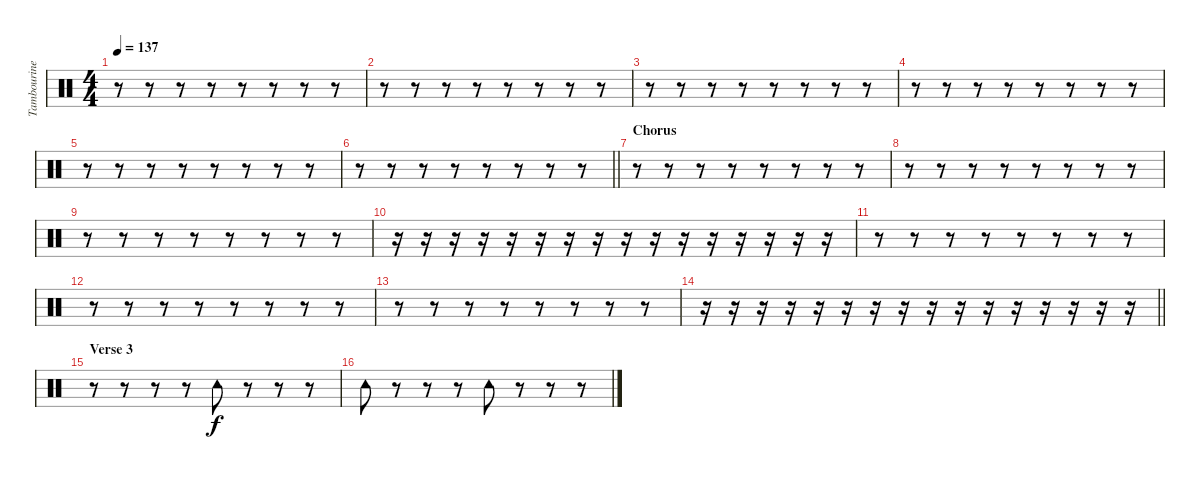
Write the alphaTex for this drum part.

\track ("Tambourine" "Tambourine") {instrument percussion}
\staff {score}
\articulation defaults
\ts (4 4)
\tempo 137
\clef neutral
\ks c
r.8{dy f} r.8 r.8 r.8 r.8 r.8 r.8 r.8 |
r.8 r.8 r.8 r.8 r.8 r.8 r.8 r.8 |
r.8 r.8 r.8 r.8 r.8 r.8 r.8 r.8 |
r.8 r.8 r.8 r.8 r.8 r.8 r.8 r.8 |
r.8 r.8 r.8 r.8 r.8 r.8 r.8 r.8 |
\barLineRight lightlight
r.8 r.8 r.8 r.8 r.8 r.8 r.8 r.8 |
\section ("" "Chorus")
r.8 r.8 r.8 r.8 r.8 r.8 r.8 r.8 |
r.8 r.8 r.8 r.8 r.8 r.8 r.8 r.8 |
r.8 r.8 r.8 r.8 r.8 r.8 r.8 r.8 |
r.16 r.16 r.16 r.16 r.16 r.16 r.16 r.16 r.16 r.16 r.16 r.16 r.16 r.16 r.16 r.16 |
r.8 r.8 r.8 r.8 r.8 r.8 r.8 r.8 |
r.8 r.8 r.8 r.8 r.8 r.8 r.8 r.8 |
r.8 r.8 r.8 r.8 r.8 r.8 r.8 r.8 |
\barLineRight lightlight
r.16 r.16 r.16 r.16 r.16 r.16 r.16 r.16 r.16 r.16 r.16 r.16 r.16 r.16 r.16 r.16 |
\section ("" "Verse 3")
r.8 r.8 r.8 r.8 "Tambourine (hit)".8 r.8 r.8 r.8 |
"Tambourine (hit)".8 r.8 r.8 r.8 "Tambourine (hit)".8 r.8 r.8 r.8
